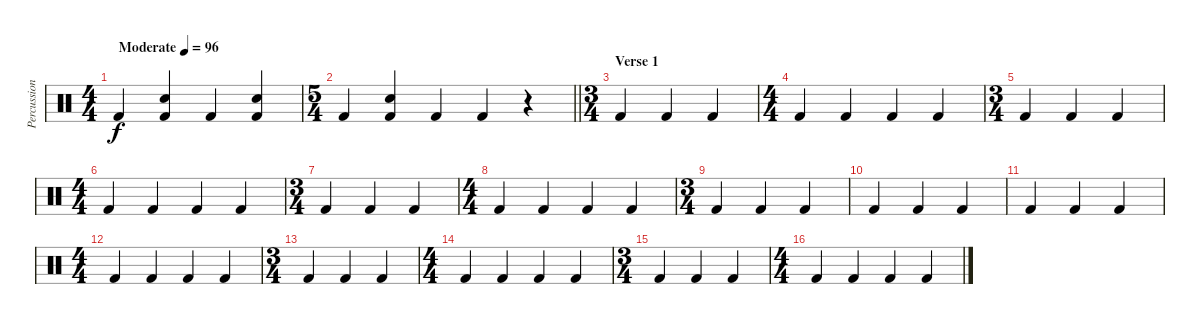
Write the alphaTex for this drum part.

\track ("Percussion" "Percussion") {instrument percussion}
\staff {score}
\articulation defaults
\ts (4 4)
\tempo (96 "Moderate")
\clef neutral
\ks c "Kick (hit) 2".4{dy f}
("Snare (hit) 2" "Kick (hit) 2").4 "Kick (hit) 2".4 ("Snare (hit) 2" "Kick (hit) 2").4 |
\ts (5 4)
\barLineRight lightlight "Kick (hit) 2".4
("Snare (hit) 2" "Kick (hit) 2").4 "Kick (hit) 2".4 "Kick (hit) 2".4 r.4 |
\ts (3 4)
\section ("" "Verse 1")
"Kick (hit) 2".4 "Kick (hit) 2".4 "Kick (hit) 2".4 |
\ts (4 4)
"Kick (hit) 2".4 "Kick (hit) 2".4 "Kick (hit) 2".4 "Kick (hit) 2".4 |
\ts (3 4)
"Kick (hit) 2".4 "Kick (hit) 2".4 "Kick (hit) 2".4 |
\ts (4 4)
"Kick (hit) 2".4 "Kick (hit) 2".4 "Kick (hit) 2".4 "Kick (hit) 2".4 |
\ts (3 4)
"Kick (hit) 2".4 "Kick (hit) 2".4 "Kick (hit) 2".4 |
\ts (4 4)
"Kick (hit) 2".4 "Kick (hit) 2".4 "Kick (hit) 2".4 "Kick (hit) 2".4 |
\ts (3 4)
"Kick (hit) 2".4 "Kick (hit) 2".4 "Kick (hit) 2".4 |
"Kick (hit) 2".4 "Kick (hit) 2".4 "Kick (hit) 2".4 |
"Kick (hit) 2".4 "Kick (hit) 2".4 "Kick (hit) 2".4 |
\ts (4 4)
"Kick (hit) 2".4 "Kick (hit) 2".4 "Kick (hit) 2".4 "Kick (hit) 2".4 |
\ts (3 4)
"Kick (hit) 2".4 "Kick (hit) 2".4 "Kick (hit) 2".4 |
\ts (4 4)
"Kick (hit) 2".4 "Kick (hit) 2".4 "Kick (hit) 2".4 "Kick (hit) 2".4 |
\ts (3 4)
"Kick (hit) 2".4 "Kick (hit) 2".4 "Kick (hit) 2".4 |
\ts (4 4)
"Kick (hit) 2".4 "Kick (hit) 2".4 "Kick (hit) 2".4 "Kick (hit) 2".4
